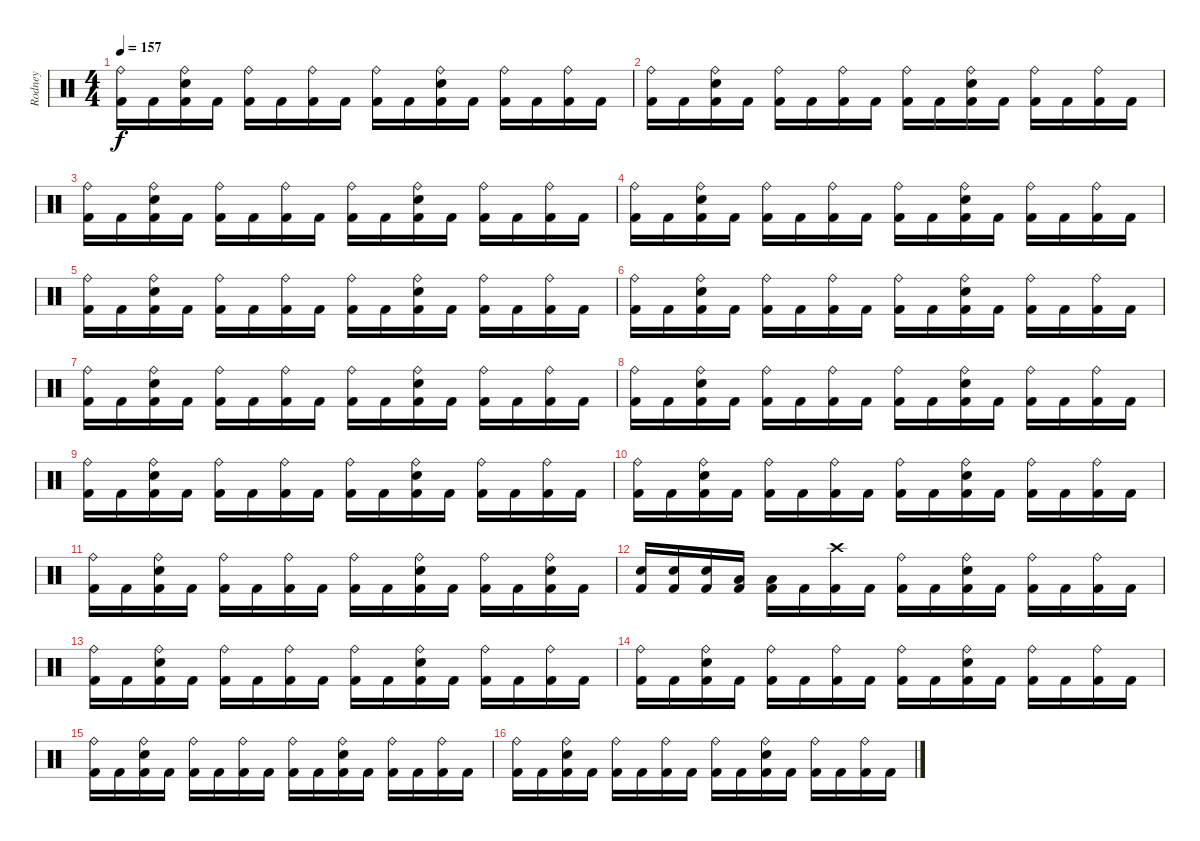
\track ("Rodney" "Rodney") {instrument percussion}
\staff {score}
\articulation defaults
\ts (4 4)
\tempo 157
\clef neutral
\ks c
("Ride (bell)" "Kick (hit) 2").16{dy f} "Kick (hit) 2".16 ("Ride (bell)" "Snare (hit) 2" "Kick (hit) 2").16 "Kick (hit) 2".16 ("Ride (bell)" "Kick (hit) 2").16 "Kick (hit) 2".16 ("Ride (bell)" "Kick (hit) 2").16 "Kick (hit) 2".16 ("Ride (bell)" "Kick (hit) 2").16 "Kick (hit) 2".16 ("Ride (bell)" "Snare (hit) 2" "Kick (hit) 2").16 "Kick (hit) 2".16 ("Ride (bell)" "Kick (hit) 2").16 "Kick (hit) 2".16 ("Ride (bell)" "Kick (hit) 2").16 "Kick (hit) 2".16 |
("Ride (bell)" "Kick (hit) 2").16 "Kick (hit) 2".16 ("Ride (bell)" "Snare (hit) 2" "Kick (hit) 2").16 "Kick (hit) 2".16 ("Ride (bell)" "Kick (hit) 2").16 "Kick (hit) 2".16 ("Ride (bell)" "Kick (hit) 2").16 "Kick (hit) 2".16 ("Ride (bell)" "Kick (hit) 2").16 "Kick (hit) 2".16 ("Ride (bell)" "Snare (hit) 2" "Kick (hit) 2").16 "Kick (hit) 2".16 ("Ride (bell)" "Kick (hit) 2").16 "Kick (hit) 2".16 ("Ride (bell)" "Kick (hit) 2").16 "Kick (hit) 2".16 |
("Ride (bell)" "Kick (hit) 2").16 "Kick (hit) 2".16 ("Ride (bell)" "Snare (hit) 2" "Kick (hit) 2").16 "Kick (hit) 2".16 ("Ride (bell)" "Kick (hit) 2").16 "Kick (hit) 2".16 ("Ride (bell)" "Kick (hit) 2").16 "Kick (hit) 2".16 ("Ride (bell)" "Kick (hit) 2").16 "Kick (hit) 2".16 ("Ride (bell)" "Snare (hit) 2" "Kick (hit) 2").16 "Kick (hit) 2".16 ("Ride (bell)" "Kick (hit) 2").16 "Kick (hit) 2".16 ("Ride (bell)" "Kick (hit) 2").16 "Kick (hit) 2".16 |
("Ride (bell)" "Kick (hit) 2").16 "Kick (hit) 2".16 ("Ride (bell)" "Snare (hit) 2" "Kick (hit) 2").16 "Kick (hit) 2".16 ("Ride (bell)" "Kick (hit) 2").16 "Kick (hit) 2".16 ("Ride (bell)" "Kick (hit) 2").16 "Kick (hit) 2".16 ("Ride (bell)" "Kick (hit) 2").16 "Kick (hit) 2".16 ("Ride (bell)" "Snare (hit) 2" "Kick (hit) 2").16 "Kick (hit) 2".16 ("Ride (bell)" "Kick (hit) 2").16 "Kick (hit) 2".16 ("Ride (bell)" "Kick (hit) 2").16 "Kick (hit) 2".16 |
("Ride (bell)" "Kick (hit) 2").16 "Kick (hit) 2".16 ("Ride (bell)" "Snare (hit) 2" "Kick (hit) 2").16 "Kick (hit) 2".16 ("Ride (bell)" "Kick (hit) 2").16 "Kick (hit) 2".16 ("Ride (bell)" "Kick (hit) 2").16 "Kick (hit) 2".16 ("Ride (bell)" "Kick (hit) 2").16 "Kick (hit) 2".16 ("Ride (bell)" "Snare (hit) 2" "Kick (hit) 2").16 "Kick (hit) 2".16 ("Ride (bell)" "Kick (hit) 2").16 "Kick (hit) 2".16 ("Ride (bell)" "Kick (hit) 2").16 "Kick (hit) 2".16 |
("Ride (bell)" "Kick (hit) 2").16 "Kick (hit) 2".16 ("Ride (bell)" "Snare (hit) 2" "Kick (hit) 2").16 "Kick (hit) 2".16 ("Ride (bell)" "Kick (hit) 2").16 "Kick (hit) 2".16 ("Ride (bell)" "Kick (hit) 2").16 "Kick (hit) 2".16 ("Ride (bell)" "Kick (hit) 2").16 "Kick (hit) 2".16 ("Ride (bell)" "Snare (hit) 2" "Kick (hit) 2").16 "Kick (hit) 2".16 ("Ride (bell)" "Kick (hit) 2").16 "Kick (hit) 2".16 ("Ride (bell)" "Kick (hit) 2").16 "Kick (hit) 2".16 |
("Ride (bell)" "Kick (hit) 2").16 "Kick (hit) 2".16 ("Ride (bell)" "Snare (hit) 2" "Kick (hit) 2").16 "Kick (hit) 2".16 ("Ride (bell)" "Kick (hit) 2").16 "Kick (hit) 2".16 ("Ride (bell)" "Kick (hit) 2").16 "Kick (hit) 2".16 ("Ride (bell)" "Kick (hit) 2").16 "Kick (hit) 2".16 ("Ride (bell)" "Snare (hit) 2" "Kick (hit) 2").16 "Kick (hit) 2".16 ("Ride (bell)" "Kick (hit) 2").16 "Kick (hit) 2".16 ("Ride (bell)" "Kick (hit) 2").16 "Kick (hit) 2".16 |
("Ride (bell)" "Kick (hit) 2").16 "Kick (hit) 2".16 ("Ride (bell)" "Snare (hit) 2" "Kick (hit) 2").16 "Kick (hit) 2".16 ("Ride (bell)" "Kick (hit) 2").16 "Kick (hit) 2".16 ("Ride (bell)" "Kick (hit) 2").16 "Kick (hit) 2".16 ("Ride (bell)" "Kick (hit) 2").16 "Kick (hit) 2".16 ("Ride (bell)" "Snare (hit) 2" "Kick (hit) 2").16 "Kick (hit) 2".16 ("Ride (bell)" "Kick (hit) 2").16 "Kick (hit) 2".16 ("Ride (bell)" "Kick (hit) 2").16 "Kick (hit) 2".16 |
("Ride (bell)" "Kick (hit) 2").16 "Kick (hit) 2".16 ("Ride (bell)" "Snare (hit) 2" "Kick (hit) 2").16 "Kick (hit) 2".16 ("Ride (bell)" "Kick (hit) 2").16 "Kick (hit) 2".16 ("Ride (bell)" "Kick (hit) 2").16 "Kick (hit) 2".16 ("Ride (bell)" "Kick (hit) 2").16 "Kick (hit) 2".16 ("Ride (bell)" "Snare (hit) 2" "Kick (hit) 2").16 "Kick (hit) 2".16 ("Ride (bell)" "Kick (hit) 2").16 "Kick (hit) 2".16 ("Ride (bell)" "Kick (hit) 2").16 "Kick (hit) 2".16 |
("Ride (bell)" "Kick (hit) 2").16 "Kick (hit) 2".16 ("Ride (bell)" "Snare (hit) 2" "Kick (hit) 2").16 "Kick (hit) 2".16 ("Ride (bell)" "Kick (hit) 2").16 "Kick (hit) 2".16 ("Ride (bell)" "Kick (hit) 2").16 "Kick (hit) 2".16 ("Ride (bell)" "Kick (hit) 2").16 "Kick (hit) 2".16 ("Ride (bell)" "Snare (hit) 2" "Kick (hit) 2").16 "Kick (hit) 2".16 ("Ride (bell)" "Kick (hit) 2").16 "Kick (hit) 2".16 ("Ride (bell)" "Kick (hit) 2").16 "Kick (hit) 2".16 |
("Ride (bell)" "Kick (hit) 2").16 "Kick (hit) 2".16 ("Ride (bell)" "Snare (hit) 2" "Kick (hit) 2").16 "Kick (hit) 2".16 ("Ride (bell)" "Kick (hit) 2").16 "Kick (hit) 2".16 ("Ride (bell)" "Kick (hit) 2").16 "Kick (hit) 2".16 ("Ride (bell)" "Kick (hit) 2").16 "Kick (hit) 2".16 ("Ride (bell)" "Snare (hit) 2" "Kick (hit) 2").16 "Kick (hit) 2".16 ("Ride (bell)" "Kick (hit) 2").16 "Kick (hit) 2".16 ("Ride (bell)" "Snare (hit) 2" "Kick (hit) 2").16 "Kick (hit) 2".16 |
("Snare (hit) 2" "Kick (hit) 2").16 ("Snare (hit) 2" "Kick (hit) 2").16 ("Snare (hit) 2" "Kick (hit) 2").16 ("Low Tom (hit)" "Kick (hit) 2").16 ("Low Tom (hit)" "Kick (hit) 2").16 "Kick (hit) 2".16 ("Crash high (hit)" "Kick (hit) 2").16 "Kick (hit) 2".16 ("Ride (bell)" "Kick (hit) 2").16 "Kick (hit) 2".16 ("Ride (bell)" "Snare (hit) 2" "Kick (hit) 2").16 "Kick (hit) 2".16 ("Ride (bell)" "Kick (hit) 2").16 "Kick (hit) 2".16 ("Ride (bell)" "Kick (hit) 2").16 "Kick (hit) 2".16 |
("Ride (bell)" "Kick (hit) 2").16 "Kick (hit) 2".16 ("Ride (bell)" "Snare (hit) 2" "Kick (hit) 2").16 "Kick (hit) 2".16 ("Ride (bell)" "Kick (hit) 2").16 "Kick (hit) 2".16 ("Ride (bell)" "Kick (hit) 2").16 "Kick (hit) 2".16 ("Ride (bell)" "Kick (hit) 2").16 "Kick (hit) 2".16 ("Ride (bell)" "Snare (hit) 2" "Kick (hit) 2").16 "Kick (hit) 2".16 ("Ride (bell)" "Kick (hit) 2").16 "Kick (hit) 2".16 ("Ride (bell)" "Kick (hit) 2").16 "Kick (hit) 2".16 |
("Ride (bell)" "Kick (hit) 2").16 "Kick (hit) 2".16 ("Ride (bell)" "Snare (hit) 2" "Kick (hit) 2").16 "Kick (hit) 2".16 ("Ride (bell)" "Kick (hit) 2").16 "Kick (hit) 2".16 ("Ride (bell)" "Kick (hit) 2").16 "Kick (hit) 2".16 ("Ride (bell)" "Kick (hit) 2").16 "Kick (hit) 2".16 ("Ride (bell)" "Snare (hit) 2" "Kick (hit) 2").16 "Kick (hit) 2".16 ("Ride (bell)" "Kick (hit) 2").16 "Kick (hit) 2".16 ("Ride (bell)" "Kick (hit) 2").16 "Kick (hit) 2".16 |
("Ride (bell)" "Kick (hit) 2").16 "Kick (hit) 2".16 ("Ride (bell)" "Snare (hit) 2" "Kick (hit) 2").16 "Kick (hit) 2".16 ("Ride (bell)" "Kick (hit) 2").16 "Kick (hit) 2".16 ("Ride (bell)" "Kick (hit) 2").16 "Kick (hit) 2".16 ("Ride (bell)" "Kick (hit) 2").16 "Kick (hit) 2".16 ("Ride (bell)" "Snare (hit) 2" "Kick (hit) 2").16 "Kick (hit) 2".16 ("Ride (bell)" "Kick (hit) 2").16 "Kick (hit) 2".16 ("Ride (bell)" "Kick (hit) 2").16 "Kick (hit) 2".16 |
("Ride (bell)" "Kick (hit) 2").16 "Kick (hit) 2".16 ("Ride (bell)" "Snare (hit) 2" "Kick (hit) 2").16 "Kick (hit) 2".16 ("Ride (bell)" "Kick (hit) 2").16 "Kick (hit) 2".16 ("Ride (bell)" "Kick (hit) 2").16 "Kick (hit) 2".16 ("Ride (bell)" "Kick (hit) 2").16 "Kick (hit) 2".16 ("Ride (bell)" "Snare (hit) 2" "Kick (hit) 2").16 "Kick (hit) 2".16 ("Ride (bell)" "Kick (hit) 2").16 "Kick (hit) 2".16 ("Ride (bell)" "Kick (hit) 2").16 "Kick (hit) 2".16
